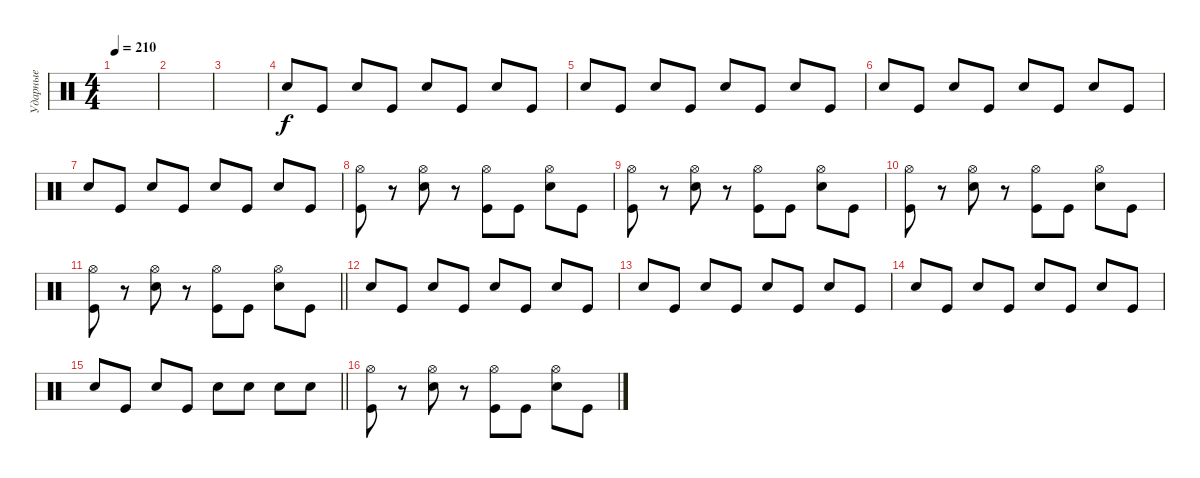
\track ("Ударные" "Ударные") {instrument percussion}
\staff {score}
\articulation defaults
\ts (4 4)
\tempo 210
\clef neutral
\ks c
|
|
|
"Electric Snare (hit)".8 "Kick (hit)".8 "Electric Snare (hit)".8 "Kick (hit)".8 "Electric Snare (hit)".8 "Kick (hit)".8 "Electric Snare (hit)".8 "Kick (hit)".8 |
"Electric Snare (hit)".8 "Kick (hit)".8 "Electric Snare (hit)".8 "Kick (hit)".8 "Electric Snare (hit)".8 "Kick (hit)".8 "Electric Snare (hit)".8 "Kick (hit)".8 |
"Electric Snare (hit)".8 "Kick (hit)".8 "Electric Snare (hit)".8 "Kick (hit)".8 "Electric Snare (hit)".8 "Kick (hit)".8 "Electric Snare (hit)".8 "Kick (hit)".8 |
"Electric Snare (hit)".8 "Kick (hit)".8 "Electric Snare (hit)".8 "Kick (hit)".8 "Electric Snare (hit)".8 "Kick (hit)".8 "Electric Snare (hit)".8 "Kick (hit)".8 |
("Hi-Hat (open)" "Kick (hit)").8 r.8 ("Hi-Hat (open)" "Electric Snare (hit)").8 r.8 ("Hi-Hat (open)" "Kick (hit)").8 "Kick (hit)".8 ("Hi-Hat (open)" "Electric Snare (hit)").8 "Kick (hit)".8 |
("Hi-Hat (open)" "Kick (hit)").8 r.8 ("Hi-Hat (open)" "Electric Snare (hit)").8 r.8 ("Hi-Hat (open)" "Kick (hit)").8 "Kick (hit)".8 ("Hi-Hat (open)" "Electric Snare (hit)").8 "Kick (hit)".8 |
("Hi-Hat (open)" "Kick (hit)").8 r.8 ("Hi-Hat (open)" "Electric Snare (hit)").8 r.8 ("Hi-Hat (open)" "Kick (hit)").8 "Kick (hit)".8 ("Hi-Hat (open)" "Electric Snare (hit)").8 "Kick (hit)".8 |
\barLineRight lightlight
("Hi-Hat (open)" "Kick (hit)").8 r.8 ("Hi-Hat (open)" "Electric Snare (hit)").8 r.8 ("Hi-Hat (open)" "Kick (hit)").8 "Kick (hit)".8 ("Hi-Hat (open)" "Electric Snare (hit)").8 "Kick (hit)".8 |
"Electric Snare (hit)".8 "Kick (hit)".8 "Electric Snare (hit)".8 "Kick (hit)".8 "Electric Snare (hit)".8 "Kick (hit)".8 "Electric Snare (hit)".8 "Kick (hit)".8 |
"Electric Snare (hit)".8 "Kick (hit)".8 "Electric Snare (hit)".8 "Kick (hit)".8 "Electric Snare (hit)".8 "Kick (hit)".8 "Electric Snare (hit)".8 "Kick (hit)".8 |
"Electric Snare (hit)".8 "Kick (hit)".8 "Electric Snare (hit)".8 "Kick (hit)".8 "Electric Snare (hit)".8 "Kick (hit)".8 "Electric Snare (hit)".8 "Kick (hit)".8 |
\barLineRight lightlight "Electric Snare (hit)".8 "Kick (hit)".8 "Electric Snare (hit)".8 "Kick (hit)".8 "Electric Snare (hit)".8 "Electric Snare (hit)".8 "Electric Snare (hit)".8 "Electric Snare (hit)".8
|
("Hi-Hat (open)" "Kick (hit)").8 r.8 ("Hi-Hat (open)" "Electric Snare (hit)").8 r.8 ("Hi-Hat (open)" "Kick (hit)").8 "Kick (hit)".8 ("Hi-Hat (open)" "Electric Snare (hit)").8 "Kick (hit)".8
